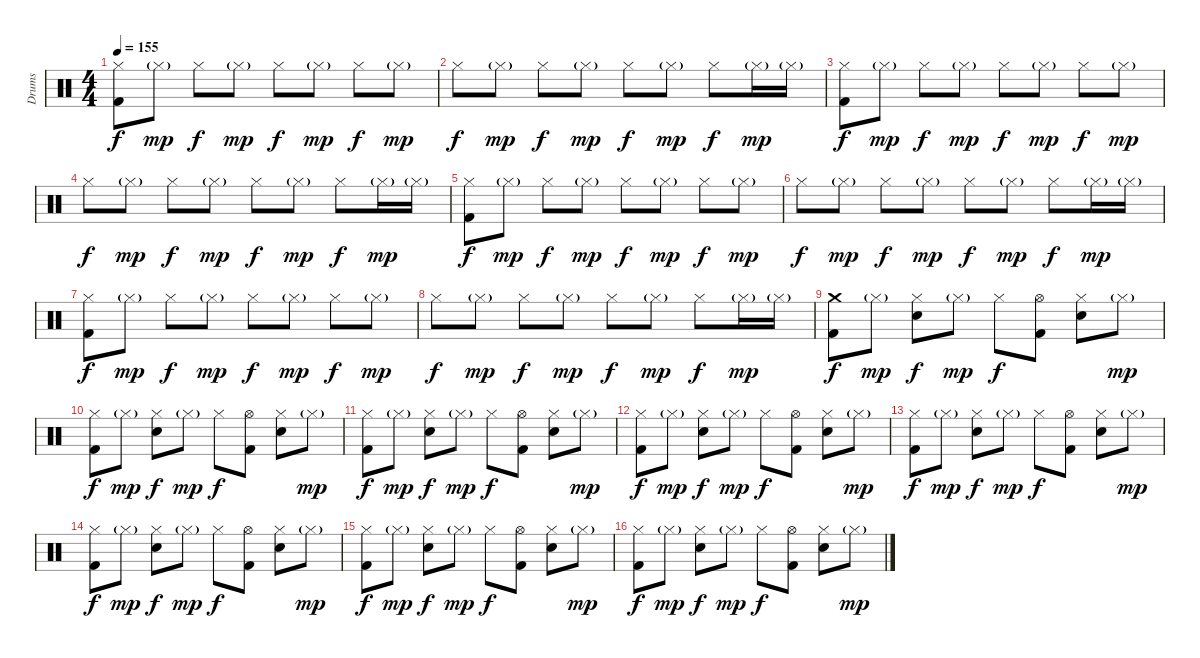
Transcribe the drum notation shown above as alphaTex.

\track ("Drums" "Drums") {instrument percussion}
\staff {score}
\articulation defaults
\ts (4 4)
\tempo 155
\clef neutral
\ks c
("Hi-Hat (closed)" "Kick (hit) 2").8{dy f} "Hi-Hat (closed)"{g}.8{dy mp} "Hi-Hat (closed)".8{dy f} "Hi-Hat (closed)"{g}.8{dy mp} "Hi-Hat (closed)".8{dy f} "Hi-Hat (closed)"{g}.8{dy mp} "Hi-Hat (closed)".8{dy f} "Hi-Hat (closed)"{g}.8{dy mp} |
"Hi-Hat (closed)".8{dy f} "Hi-Hat (closed)"{g}.8{dy mp} "Hi-Hat (closed)".8{dy f} "Hi-Hat (closed)"{g}.8{dy mp} "Hi-Hat (closed)".8{dy f} "Hi-Hat (closed)"{g}.8{dy mp} "Hi-Hat (closed)".8{dy f} "Hi-Hat (closed)"{g}.16{dy mp} "Hi-Hat (closed)"{g}.16 |
("Hi-Hat (closed)" "Kick (hit) 2").8{dy f} "Hi-Hat (closed)"{g}.8{dy mp} "Hi-Hat (closed)".8{dy f} "Hi-Hat (closed)"{g}.8{dy mp} "Hi-Hat (closed)".8{dy f} "Hi-Hat (closed)"{g}.8{dy mp} "Hi-Hat (closed)".8{dy f} "Hi-Hat (closed)"{g}.8{dy mp} |
"Hi-Hat (closed)".8{dy f} "Hi-Hat (closed)"{g}.8{dy mp} "Hi-Hat (closed)".8{dy f} "Hi-Hat (closed)"{g}.8{dy mp} "Hi-Hat (closed)".8{dy f} "Hi-Hat (closed)"{g}.8{dy mp} "Hi-Hat (closed)".8{dy f} "Hi-Hat (closed)"{g}.16{dy mp} "Hi-Hat (closed)"{g}.16 |
("Hi-Hat (closed)" "Kick (hit) 2").8{dy f} "Hi-Hat (closed)"{g}.8{dy mp} "Hi-Hat (closed)".8{dy f} "Hi-Hat (closed)"{g}.8{dy mp} "Hi-Hat (closed)".8{dy f} "Hi-Hat (closed)"{g}.8{dy mp} "Hi-Hat (closed)".8{dy f} "Hi-Hat (closed)"{g}.8{dy mp} |
"Hi-Hat (closed)".8{dy f} "Hi-Hat (closed)"{g}.8{dy mp} "Hi-Hat (closed)".8{dy f} "Hi-Hat (closed)"{g}.8{dy mp} "Hi-Hat (closed)".8{dy f} "Hi-Hat (closed)"{g}.8{dy mp} "Hi-Hat (closed)".8{dy f} "Hi-Hat (closed)"{g}.16{dy mp} "Hi-Hat (closed)"{g}.16 |
("Hi-Hat (closed)" "Kick (hit) 2").8{dy f} "Hi-Hat (closed)"{g}.8{dy mp} "Hi-Hat (closed)".8{dy f} "Hi-Hat (closed)"{g}.8{dy mp} "Hi-Hat (closed)".8{dy f} "Hi-Hat (closed)"{g}.8{dy mp} "Hi-Hat (closed)".8{dy f} "Hi-Hat (closed)"{g}.8{dy mp} |
"Hi-Hat (closed)".8{dy f} "Hi-Hat (closed)"{g}.8{dy mp} "Hi-Hat (closed)".8{dy f} "Hi-Hat (closed)"{g}.8{dy mp} "Hi-Hat (closed)".8{dy f} "Hi-Hat (closed)"{g}.8{dy mp} "Hi-Hat (closed)".8{dy f} "Hi-Hat (closed)"{g}.16{dy mp} "Hi-Hat (closed)"{g}.16 |
("Crash medium (hit)" "Kick (hit) 2").8{dy f} "Hi-Hat (closed)"{g}.8{dy mp} ("Hi-Hat (closed)" "Snare (hit) 2").8{dy f} "Hi-Hat (closed)"{g}.8{dy mp} "Hi-Hat (closed)".8{dy f} ("Hi-Hat (open)" "Kick (hit) 2").8 ("Hi-Hat (closed)" "Snare (hit) 2").8 "Hi-Hat (closed)"{g}.8{dy mp} |
("Hi-Hat (closed)" "Kick (hit) 2").8{dy f} "Hi-Hat (closed)"{g}.8{dy mp} ("Hi-Hat (closed)" "Snare (hit) 2").8{dy f} "Hi-Hat (closed)"{g}.8{dy mp} "Hi-Hat (closed)".8{dy f} ("Hi-Hat (open)" "Kick (hit) 2").8 ("Hi-Hat (closed)" "Snare (hit) 2").8 "Hi-Hat (closed)"{g}.8{dy mp} |
("Hi-Hat (closed)" "Kick (hit) 2").8{dy f} "Hi-Hat (closed)"{g}.8{dy mp} ("Hi-Hat (closed)" "Snare (hit) 2").8{dy f} "Hi-Hat (closed)"{g}.8{dy mp} "Hi-Hat (closed)".8{dy f} ("Hi-Hat (open)" "Kick (hit) 2").8 ("Hi-Hat (closed)" "Snare (hit) 2").8 "Hi-Hat (closed)"{g}.8{dy mp} |
("Hi-Hat (closed)" "Kick (hit) 2").8{dy f} "Hi-Hat (closed)"{g}.8{dy mp} ("Hi-Hat (closed)" "Snare (hit) 2").8{dy f} "Hi-Hat (closed)"{g}.8{dy mp} "Hi-Hat (closed)".8{dy f} ("Hi-Hat (open)" "Kick (hit) 2").8 ("Hi-Hat (closed)" "Snare (hit) 2").8 "Hi-Hat (closed)"{g}.8{dy mp} |
("Hi-Hat (closed)" "Kick (hit) 2").8{dy f} "Hi-Hat (closed)"{g}.8{dy mp} ("Hi-Hat (closed)" "Snare (hit) 2").8{dy f} "Hi-Hat (closed)"{g}.8{dy mp} "Hi-Hat (closed)".8{dy f} ("Hi-Hat (open)" "Kick (hit) 2").8 ("Hi-Hat (closed)" "Snare (hit) 2").8 "Hi-Hat (closed)"{g}.8{dy mp} |
("Hi-Hat (closed)" "Kick (hit) 2").8{dy f} "Hi-Hat (closed)"{g}.8{dy mp} ("Hi-Hat (closed)" "Snare (hit) 2").8{dy f} "Hi-Hat (closed)"{g}.8{dy mp} "Hi-Hat (closed)".8{dy f} ("Hi-Hat (open)" "Kick (hit) 2").8 ("Hi-Hat (closed)" "Snare (hit) 2").8 "Hi-Hat (closed)"{g}.8{dy mp} |
("Hi-Hat (closed)" "Kick (hit) 2").8{dy f} "Hi-Hat (closed)"{g}.8{dy mp} ("Hi-Hat (closed)" "Snare (hit) 2").8{dy f} "Hi-Hat (closed)"{g}.8{dy mp} "Hi-Hat (closed)".8{dy f} ("Hi-Hat (open)" "Kick (hit) 2").8 ("Hi-Hat (closed)" "Snare (hit) 2").8 "Hi-Hat (closed)"{g}.8{dy mp} |
("Hi-Hat (closed)" "Kick (hit) 2").8{dy f} "Hi-Hat (closed)"{g}.8{dy mp} ("Hi-Hat (closed)" "Snare (hit) 2").8{dy f} "Hi-Hat (closed)"{g}.8{dy mp} "Hi-Hat (closed)".8{dy f} ("Hi-Hat (open)" "Kick (hit) 2").8 ("Hi-Hat (closed)" "Snare (hit) 2").8 "Hi-Hat (closed)"{g}.8{dy mp}
